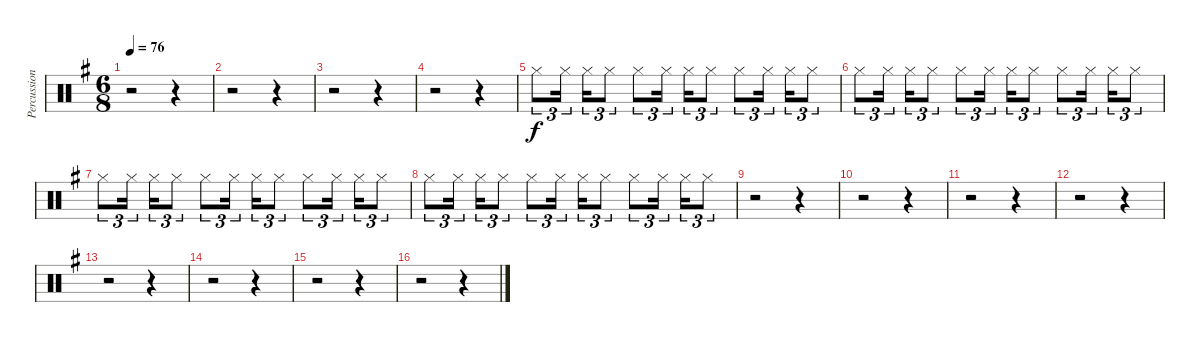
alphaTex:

\track ("Percussions 2" "Percussion") {instrument percussion}
\staff {score}
\articulation defaults
\ts (6 8)
\tempo 76
\clef neutral
\ks g
r.2{dy f} r.4 |
r.2 r.4 |
r.2 r.4 |
r.2 r.4 |
"Hi-Hat (closed)".8{tu (3 2)} "Hi-Hat (closed)".16{tu (3 2)} "Hi-Hat (closed)".16{tu (3 2)} "Hi-Hat (closed)".8{tu (3 2)} "Hi-Hat (closed)".8{tu (3 2)} "Hi-Hat (closed)".16{tu (3 2)} "Hi-Hat (closed)".16{tu (3 2)} "Hi-Hat (closed)".8{tu (3 2)} "Hi-Hat (closed)".8{tu (3 2)} "Hi-Hat (closed)".16{tu (3 2)} "Hi-Hat (closed)".16{tu (3 2)} "Hi-Hat (closed)".8{tu (3 2)} |
"Hi-Hat (closed)".8{tu (3 2)} "Hi-Hat (closed)".16{tu (3 2)} "Hi-Hat (closed)".16{tu (3 2)} "Hi-Hat (closed)".8{tu (3 2)} "Hi-Hat (closed)".8{tu (3 2)} "Hi-Hat (closed)".16{tu (3 2)} "Hi-Hat (closed)".16{tu (3 2)} "Hi-Hat (closed)".8{tu (3 2)} "Hi-Hat (closed)".8{tu (3 2)} "Hi-Hat (closed)".16{tu (3 2)} "Hi-Hat (closed)".16{tu (3 2)} "Hi-Hat (closed)".8{tu (3 2)} |
"Hi-Hat (closed)".8{tu (3 2)} "Hi-Hat (closed)".16{tu (3 2)} "Hi-Hat (closed)".16{tu (3 2)} "Hi-Hat (closed)".8{tu (3 2)} "Hi-Hat (closed)".8{tu (3 2)} "Hi-Hat (closed)".16{tu (3 2)} "Hi-Hat (closed)".16{tu (3 2)} "Hi-Hat (closed)".8{tu (3 2)} "Hi-Hat (closed)".8{tu (3 2)} "Hi-Hat (closed)".16{tu (3 2)} "Hi-Hat (closed)".16{tu (3 2)} "Hi-Hat (closed)".8{tu (3 2)} |
"Hi-Hat (closed)".8{tu (3 2)} "Hi-Hat (closed)".16{tu (3 2)} "Hi-Hat (closed)".16{tu (3 2)} "Hi-Hat (closed)".8{tu (3 2)} "Hi-Hat (closed)".8{tu (3 2)} "Hi-Hat (closed)".16{tu (3 2)} "Hi-Hat (closed)".16{tu (3 2)} "Hi-Hat (closed)".8{tu (3 2)} "Hi-Hat (closed)".8{tu (3 2)} "Hi-Hat (closed)".16{tu (3 2)} "Hi-Hat (closed)".16{tu (3 2)} "Hi-Hat (closed)".8{tu (3 2)} |
r.2 r.4 |
r.2 r.4 |
r.2 r.4 |
r.2 r.4 |
r.2 r.4 |
r.2 r.4 |
r.2 r.4 |
r.2 r.4
